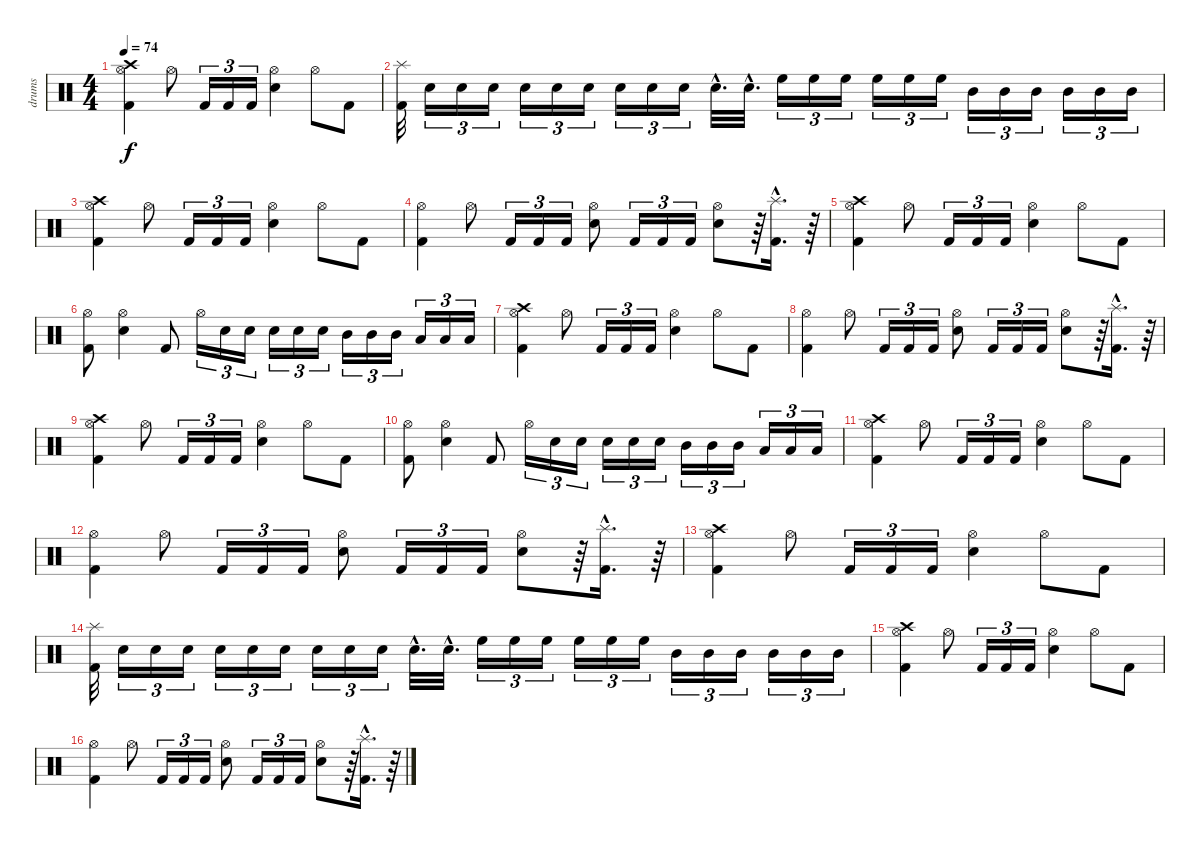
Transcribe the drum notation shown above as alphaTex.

\track ("drums" "drums") {instrument percussion}
\staff {score}
\articulation defaults
\ts (4 4)
\tempo 74
\clef neutral
\ks c
("Kick (hit) 2" "Crash high (hit)" "Hi-Hat (open)").4{dy f} "Hi-Hat (open)".8 "Kick (hit) 2".16{tu (3 2)} "Kick (hit) 2".16{tu (3 2)} "Kick (hit) 2".16{tu (3 2)} ("Hi-Hat (open)" "Snare (hit) 2").4 "Hi-Hat (open)".8 "Kick (hit) 2".8 |
("Splash (hit)" "Kick (hit) 2").32 "Electric Snare (hit)".16{tu (3 2)} "Electric Snare (hit)".16{tu (3 2)} "Electric Snare (hit)".16{tu (3 2)} "Electric Snare (hit)".16{tu (3 2)} "Electric Snare (hit)".16{tu (3 2)} "Electric Snare (hit)".16{tu (3 2)} "Electric Snare (hit)".16{tu (3 2)} "Electric Snare (hit)".16{tu (3 2)} "Electric Snare (hit)".16{tu (3 2)} "Electric Snare (hit)"{hac}.32{d} "Electric Snare (hit)"{hac}.32{d} "High Floor Tom (hit)".16{tu (3 2)} "High Floor Tom (hit)".16{tu (3 2)} "High Floor Tom (hit)".16{tu (3 2)} "High Floor Tom (hit)".16{tu (3 2)} "High Floor Tom (hit)".16{tu (3 2)} "High Floor Tom (hit)".16{tu (3 2)} "Mid Tom (hit)".16{tu (3 2)} "Mid Tom (hit)".16{tu (3 2)} "Mid Tom (hit)".16{tu (3 2)} "Mid Tom (hit)".16{tu (3 2)} "Mid Tom (hit)".16{tu (3 2)} "Mid Tom (hit)".16{tu (3 2)} |
("Kick (hit) 2" "Crash high (hit)" "Hi-Hat (open)").4 "Hi-Hat (open)".8 "Kick (hit) 2".16{tu (3 2)} "Kick (hit) 2".16{tu (3 2)} "Kick (hit) 2".16{tu (3 2)} ("Hi-Hat (open)" "Snare (hit) 2").4 "Hi-Hat (open)".8 "Kick (hit) 2".8 |
("Hi-Hat (open)" "Kick (hit) 2").4 "Hi-Hat (open)".8 "Kick (hit) 2".16{tu (3 2)} "Kick (hit) 2".16{tu (3 2)} "Kick (hit) 2".16{tu (3 2)} ("Snare (hit) 2" "Hi-Hat (open)").8 "Kick (hit) 2".16{tu (3 2)} "Kick (hit) 2".16{tu (3 2)} "Kick (hit) 2".16{tu (3 2)} ("Hi-Hat (open)" "Snare (hit) 2").8 r.64 ("Splash (hit)"{hac} "Kick (hit) 2"{hac}).16{d} r.64 |
("Kick (hit) 2" "Crash high (hit)" "Hi-Hat (open)").4 "Hi-Hat (open)".8 "Kick (hit) 2".16{tu (3 2)} "Kick (hit) 2".16{tu (3 2)} "Kick (hit) 2".16{tu (3 2)} ("Hi-Hat (open)" "Snare (hit) 2").4 "Hi-Hat (open)".8 "Kick (hit) 2".8 |
("Hi-Hat (open)" "Kick (hit) 2").8 ("Hi-Hat (open)" "Electric Snare (hit)").4 "Kick (hit) 2".8 "Hi-Hat (open)".16{tu (3 2)} "Electric Snare (hit)".16{tu (3 2)} "Electric Snare (hit)".16{tu (3 2)} "Electric Snare (hit)".16{tu (3 2)} "Electric Snare (hit)".16{tu (3 2)} "Electric Snare (hit)".16{tu (3 2)} "Mid Tom (hit)".16{tu (3 2)} "Mid Tom (hit)".16{tu (3 2)} "Mid Tom (hit)".16{tu (3 2)} "Low Tom (hit)".16{tu (3 2)} "Low Tom (hit)".16{tu (3 2)} "Low Tom (hit)".16{tu (3 2)} |
("Kick (hit) 2" "Crash high (hit)" "Hi-Hat (open)").4 "Hi-Hat (open)".8 "Kick (hit) 2".16{tu (3 2)} "Kick (hit) 2".16{tu (3 2)} "Kick (hit) 2".16{tu (3 2)} ("Hi-Hat (open)" "Snare (hit) 2").4 "Hi-Hat (open)".8 "Kick (hit) 2".8 |
("Hi-Hat (open)" "Kick (hit) 2").4 "Hi-Hat (open)".8 "Kick (hit) 2".16{tu (3 2)} "Kick (hit) 2".16{tu (3 2)} "Kick (hit) 2".16{tu (3 2)} ("Snare (hit) 2" "Hi-Hat (open)").8 "Kick (hit) 2".16{tu (3 2)} "Kick (hit) 2".16{tu (3 2)} "Kick (hit) 2".16{tu (3 2)} ("Hi-Hat (open)" "Snare (hit) 2").8 r.64 ("Splash (hit)"{hac} "Kick (hit) 2"{hac}).16{d} r.64 |
("Kick (hit) 2" "Crash high (hit)" "Hi-Hat (open)").4 "Hi-Hat (open)".8 "Kick (hit) 2".16{tu (3 2)} "Kick (hit) 2".16{tu (3 2)} "Kick (hit) 2".16{tu (3 2)} ("Hi-Hat (open)" "Snare (hit) 2").4 "Hi-Hat (open)".8 "Kick (hit) 2".8 |
("Hi-Hat (open)" "Kick (hit) 2").8 ("Hi-Hat (open)" "Electric Snare (hit)").4 "Kick (hit) 2".8 "Hi-Hat (open)".16{tu (3 2)} "Electric Snare (hit)".16{tu (3 2)} "Electric Snare (hit)".16{tu (3 2)} "Electric Snare (hit)".16{tu (3 2)} "Electric Snare (hit)".16{tu (3 2)} "Electric Snare (hit)".16{tu (3 2)} "Mid Tom (hit)".16{tu (3 2)} "Mid Tom (hit)".16{tu (3 2)} "Mid Tom (hit)".16{tu (3 2)} "Low Tom (hit)".16{tu (3 2)} "Low Tom (hit)".16{tu (3 2)} "Low Tom (hit)".16{tu (3 2)} |
("Kick (hit) 2" "Crash high (hit)" "Hi-Hat (open)").4 "Hi-Hat (open)".8 "Kick (hit) 2".16{tu (3 2)} "Kick (hit) 2".16{tu (3 2)} "Kick (hit) 2".16{tu (3 2)} ("Hi-Hat (open)" "Snare (hit) 2").4 "Hi-Hat (open)".8 "Kick (hit) 2".8 |
("Hi-Hat (open)" "Kick (hit) 2").4 "Hi-Hat (open)".8 "Kick (hit) 2".16{tu (3 2)} "Kick (hit) 2".16{tu (3 2)} "Kick (hit) 2".16{tu (3 2)} ("Snare (hit) 2" "Hi-Hat (open)").8 "Kick (hit) 2".16{tu (3 2)} "Kick (hit) 2".16{tu (3 2)} "Kick (hit) 2".16{tu (3 2)} ("Hi-Hat (open)" "Snare (hit) 2").8 r.64 ("Splash (hit)"{hac} "Kick (hit) 2"{hac}).16{d} r.64 |
("Kick (hit) 2" "Crash high (hit)" "Hi-Hat (open)").4 "Hi-Hat (open)".8 "Kick (hit) 2".16{tu (3 2)} "Kick (hit) 2".16{tu (3 2)} "Kick (hit) 2".16{tu (3 2)} ("Hi-Hat (open)" "Snare (hit) 2").4 "Hi-Hat (open)".8 "Kick (hit) 2".8 |
("Splash (hit)" "Kick (hit) 2").32 "Electric Snare (hit)".16{tu (3 2)} "Electric Snare (hit)".16{tu (3 2)} "Electric Snare (hit)".16{tu (3 2)} "Electric Snare (hit)".16{tu (3 2)} "Electric Snare (hit)".16{tu (3 2)} "Electric Snare (hit)".16{tu (3 2)} "Electric Snare (hit)".16{tu (3 2)} "Electric Snare (hit)".16{tu (3 2)} "Electric Snare (hit)".16{tu (3 2)} "Electric Snare (hit)"{hac}.32{d} "Electric Snare (hit)"{hac}.32{d} "High Floor Tom (hit)".16{tu (3 2)} "High Floor Tom (hit)".16{tu (3 2)} "High Floor Tom (hit)".16{tu (3 2)} "High Floor Tom (hit)".16{tu (3 2)} "High Floor Tom (hit)".16{tu (3 2)} "High Floor Tom (hit)".16{tu (3 2)} "Mid Tom (hit)".16{tu (3 2)} "Mid Tom (hit)".16{tu (3 2)} "Mid Tom (hit)".16{tu (3 2)} "Mid Tom (hit)".16{tu (3 2)} "Mid Tom (hit)".16{tu (3 2)} "Mid Tom (hit)".16{tu (3 2)} |
("Kick (hit) 2" "Crash high (hit)" "Hi-Hat (open)").4 "Hi-Hat (open)".8 "Kick (hit) 2".16{tu (3 2)} "Kick (hit) 2".16{tu (3 2)} "Kick (hit) 2".16{tu (3 2)} ("Hi-Hat (open)" "Snare (hit) 2").4 "Hi-Hat (open)".8 "Kick (hit) 2".8 |
("Hi-Hat (open)" "Kick (hit) 2").4 "Hi-Hat (open)".8 "Kick (hit) 2".16{tu (3 2)} "Kick (hit) 2".16{tu (3 2)} "Kick (hit) 2".16{tu (3 2)} ("Snare (hit) 2" "Hi-Hat (open)").8 "Kick (hit) 2".16{tu (3 2)} "Kick (hit) 2".16{tu (3 2)} "Kick (hit) 2".16{tu (3 2)} ("Hi-Hat (open)" "Snare (hit) 2").8 r.64 ("Splash (hit)"{hac} "Kick (hit) 2"{hac}).16{d} r.64
